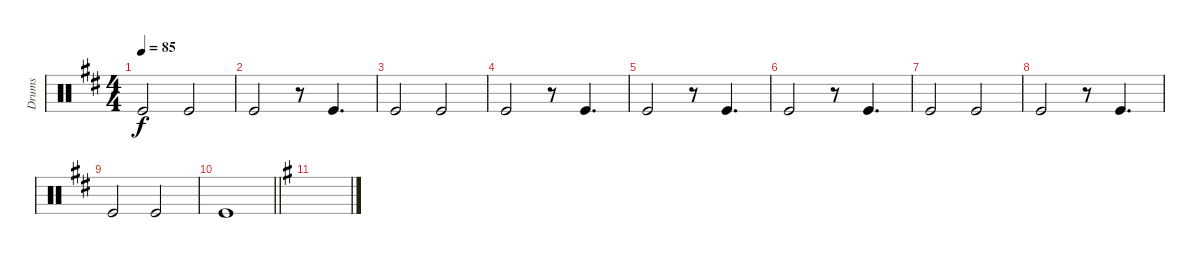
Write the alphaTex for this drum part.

\track ("Drums" "Drums") {instrument percussion}
\staff {score}
\articulation defaults
\ts (4 4)
\tempo 85
\clef neutral
\ks bminor "Kick (hit)".2{dy f} "Kick (hit)".2
|
"Kick (hit)".2 r.8 "Kick (hit)".4{d} |
"Kick (hit)".2 "Kick (hit)".2 |
"Kick (hit)".2 r.8 "Kick (hit)".4{d} |
"Kick (hit)".2 r.8 "Kick (hit)".4{d} |
"Kick (hit)".2 r.8 "Kick (hit)".4{d} |
"Kick (hit)".2 "Kick (hit)".2 |
"Kick (hit)".2 r.8 "Kick (hit)".4{d} |
"Kick (hit)".2 "Kick (hit)".2 |
\barLineRight lightlight "Kick (hit)".1
|
\ks eminor
